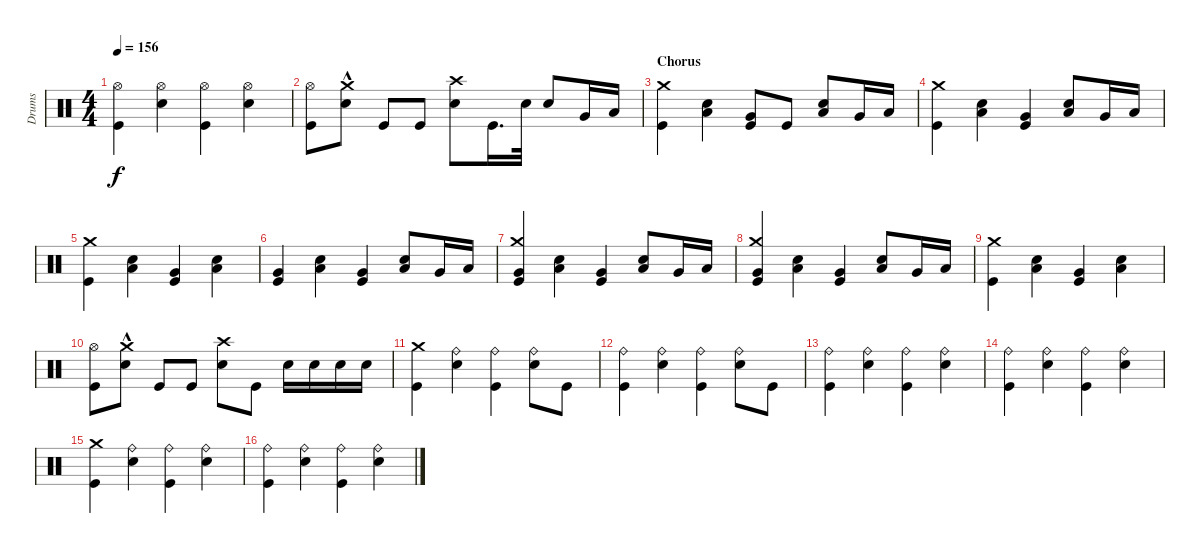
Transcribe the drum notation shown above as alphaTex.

\track ("Drums" "Drums") {instrument percussion}
\staff {score}
\articulation defaults
\ts (4 4)
\tempo 156
\clef neutral
\ks c
("Kick (hit)" "Hi-Hat (open)").4{dy f} ("Electric Snare (hit)" "Hi-Hat (open)").4 ("Kick (hit)" "Hi-Hat (open)").4 ("Electric Snare (hit)" "Hi-Hat (open)").4 |
("Kick (hit)" "Hi-Hat (open)").8 ("Electric Snare (hit)" "Crash medium (hit)"{hac}).8 "Kick (hit)".8 "Kick (hit)".8 ("Crash high (hit)" "Electric Snare (hit)").8 "Kick (hit)".16{d} "Electric Snare (hit)".32 "Electric Snare (hit)".8 "Very Low Tom (hit)".16 "Low Floor Tom (hit)".16 |
\section ("" "Chorus")
("Kick (hit)" "Crash medium (hit)").4 ("Low Tom (hit)" "Electric Snare (hit)").4 ("Very Low Tom (hit)" "Kick (hit)").8 "Kick (hit)".8 ("Low Tom (hit)" "Electric Snare (hit)").8 "Very Low Tom (hit)".16 "Low Floor Tom (hit)".16 |
("Kick (hit)" "Crash medium (hit)").4 ("Low Tom (hit)" "Electric Snare (hit)").4 ("Very Low Tom (hit)" "Kick (hit)").4 ("Low Tom (hit)" "Electric Snare (hit)").8 "Very Low Tom (hit)".16 "Low Floor Tom (hit)".16 |
("Crash medium (hit)" "Kick (hit)").4 ("Low Tom (hit)" "Electric Snare (hit)").4 ("Kick (hit)" "Very Low Tom (hit)").4 ("Electric Snare (hit)" "Low Tom (hit)").4 |
("Kick (hit)" "Very Low Tom (hit)").4 ("Electric Snare (hit)" "Low Tom (hit)").4 ("Kick (hit)" "Very Low Tom (hit)").4 ("Low Tom (hit)" "Electric Snare (hit)").8 "Very Low Tom (hit)".16 "Low Floor Tom (hit)".16 |
("Crash medium (hit)" "Kick (hit)" "Very Low Tom (hit)").4 ("Electric Snare (hit)" "Low Tom (hit)").4 ("Kick (hit)" "Very Low Tom (hit)").4 ("Low Tom (hit)" "Electric Snare (hit)").8 "Very Low Tom (hit)".16 "Low Floor Tom (hit)".16 |
("Crash medium (hit)" "Kick (hit)" "Very Low Tom (hit)").4 ("Electric Snare (hit)" "Low Tom (hit)").4 ("Kick (hit)" "Very Low Tom (hit)").4 ("Low Tom (hit)" "Electric Snare (hit)").8 "Very Low Tom (hit)".16 "Low Floor Tom (hit)".16 |
("Crash medium (hit)" "Kick (hit)").4 ("Low Tom (hit)" "Electric Snare (hit)").4 ("Kick (hit)" "Very Low Tom (hit)").4 ("Electric Snare (hit)" "Low Tom (hit)").4 |
("Kick (hit)" "Hi-Hat (open)").8 ("Electric Snare (hit)" "Crash medium (hit)"{hac}).8 "Kick (hit)".8 "Kick (hit)".8 ("Crash high (hit)" "Electric Snare (hit)").8 "Kick (hit)".8 "Electric Snare (hit)".16 "Electric Snare (hit)".16 "Electric Snare (hit)".16 "Electric Snare (hit)".16 |
("Crash medium (hit)" "Kick (hit)").4 ("Ride (bell)" "Electric Snare (hit)").4 ("Ride (bell)" "Kick (hit)").4 ("Ride (bell)" "Electric Snare (hit)").8 "Kick (hit)".8 |
("Ride (bell)" "Kick (hit)").4 ("Ride (bell)" "Electric Snare (hit)").4 ("Ride (bell)" "Kick (hit)").4 ("Ride (bell)" "Electric Snare (hit)").8 "Kick (hit)".8 |
("Ride (bell)" "Kick (hit)").4 ("Ride (bell)" "Electric Snare (hit)").4 ("Ride (bell)" "Kick (hit)").4 ("Ride (bell)" "Electric Snare (hit)").4 |
("Ride (bell)" "Kick (hit)").4 ("Ride (bell)" "Electric Snare (hit)").4 ("Ride (bell)" "Kick (hit)").4 ("Ride (bell)" "Electric Snare (hit)").4 |
("Crash medium (hit)" "Kick (hit)").4 ("Ride (bell)" "Electric Snare (hit)").4 ("Ride (bell)" "Kick (hit)").4 ("Ride (bell)" "Electric Snare (hit)").4 |
("Ride (bell)" "Kick (hit)").4 ("Ride (bell)" "Electric Snare (hit)").4 ("Ride (bell)" "Kick (hit)").4 ("Ride (bell)" "Electric Snare (hit)").4
